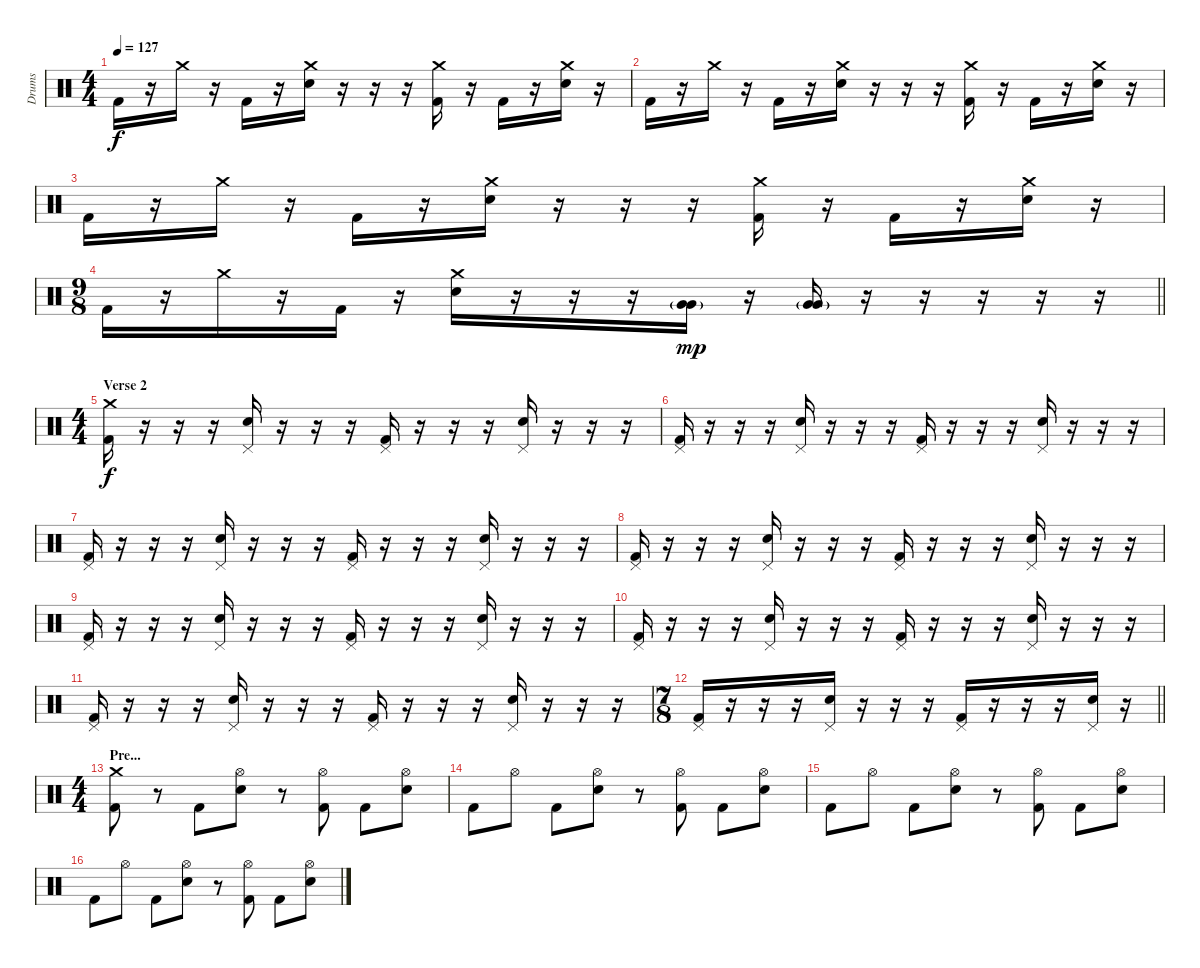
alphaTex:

\track ("Drums" "Drums") {instrument percussion}
\staff {score}
\articulation defaults
\ts (4 4)
\tempo 127
\clef neutral
\ks c "Kick (hit) 2".16{dy f}
r.16 "Crash medium (hit)".16 r.16 "Kick (hit) 2".16 r.16 ("Crash medium (hit)" "Electric Snare (hit)").16 r.16 r.16 r.16 ("Crash medium (hit)" "Kick (hit) 2").16 r.16 "Kick (hit) 2".16 r.16 ("Crash medium (hit)" "Electric Snare (hit)").16 r.16 |
"Kick (hit) 2".16 r.16 "Crash medium (hit)".16 r.16 "Kick (hit) 2".16 r.16 ("Crash medium (hit)" "Electric Snare (hit)").16 r.16 r.16 r.16 ("Crash medium (hit)" "Kick (hit) 2").16 r.16 "Kick (hit) 2".16 r.16 ("Crash medium (hit)" "Electric Snare (hit)").16 r.16 |
"Kick (hit) 2".16 r.16 "Crash medium (hit)".16 r.16 "Kick (hit) 2".16 r.16 ("Crash medium (hit)" "Electric Snare (hit)").16 r.16 r.16 r.16 ("Crash medium (hit)" "Kick (hit) 2").16 r.16 "Kick (hit) 2".16 r.16 ("Crash medium (hit)" "Electric Snare (hit)").16 r.16 |
\ts (9 8)
\barLineRight lightlight "Kick (hit) 2".16
r.16 "Crash medium (hit)".16 r.16 "Kick (hit) 2".16 r.16 ("Crash medium (hit)" "Electric Snare (hit)").16 r.16 r.16 r.16 ("Very Low Tom (hit)"{g} "Very Low Tom (hit)").16{dy mp} r.16 ("Very Low Tom (hit)"{g} "Very Low Tom (hit)").16 r.16 r.16 r.16 r.16 r.16 |
\ts (4 4)
\section ("" "Verse 2")
("Crash medium (hit)" "Kick (hit) 2").16{dy f} r.16 r.16 r.16 ("Pedal Hi-Hat (hit)" "Electric Snare (hit)").16 r.16 r.16 r.16 ("Pedal Hi-Hat (hit)" "Kick (hit) 2").16 r.16 r.16 r.16 ("Pedal Hi-Hat (hit)" "Electric Snare (hit)").16 r.16 r.16 r.16 |
("Pedal Hi-Hat (hit)" "Kick (hit) 2").16 r.16 r.16 r.16 ("Pedal Hi-Hat (hit)" "Electric Snare (hit)").16 r.16 r.16 r.16 ("Pedal Hi-Hat (hit)" "Kick (hit) 2").16 r.16 r.16 r.16 ("Pedal Hi-Hat (hit)" "Electric Snare (hit)").16 r.16 r.16 r.16 |
("Pedal Hi-Hat (hit)" "Kick (hit) 2").16 r.16 r.16 r.16 ("Pedal Hi-Hat (hit)" "Electric Snare (hit)").16 r.16 r.16 r.16 ("Pedal Hi-Hat (hit)" "Kick (hit) 2").16 r.16 r.16 r.16 ("Pedal Hi-Hat (hit)" "Electric Snare (hit)").16 r.16 r.16 r.16 |
("Pedal Hi-Hat (hit)" "Kick (hit) 2").16 r.16 r.16 r.16 ("Pedal Hi-Hat (hit)" "Electric Snare (hit)").16 r.16 r.16 r.16 ("Pedal Hi-Hat (hit)" "Kick (hit) 2").16 r.16 r.16 r.16 ("Pedal Hi-Hat (hit)" "Electric Snare (hit)").16 r.16 r.16 r.16 |
("Pedal Hi-Hat (hit)" "Kick (hit) 2").16 r.16 r.16 r.16 ("Pedal Hi-Hat (hit)" "Electric Snare (hit)").16 r.16 r.16 r.16 ("Pedal Hi-Hat (hit)" "Kick (hit) 2").16 r.16 r.16 r.16 ("Pedal Hi-Hat (hit)" "Electric Snare (hit)").16 r.16 r.16 r.16 |
("Pedal Hi-Hat (hit)" "Kick (hit) 2").16 r.16 r.16 r.16 ("Pedal Hi-Hat (hit)" "Electric Snare (hit)").16 r.16 r.16 r.16 ("Pedal Hi-Hat (hit)" "Kick (hit) 2").16 r.16 r.16 r.16 ("Pedal Hi-Hat (hit)" "Electric Snare (hit)").16 r.16 r.16 r.16 |
("Pedal Hi-Hat (hit)" "Kick (hit) 2").16 r.16 r.16 r.16 ("Pedal Hi-Hat (hit)" "Electric Snare (hit)").16 r.16 r.16 r.16 ("Pedal Hi-Hat (hit)" "Kick (hit) 2").16 r.16 r.16 r.16 ("Pedal Hi-Hat (hit)" "Electric Snare (hit)").16 r.16 r.16 r.16 |
\ts (7 8)
\barLineRight lightlight
("Pedal Hi-Hat (hit)" "Kick (hit) 2").16 r.16 r.16 r.16 ("Pedal Hi-Hat (hit)" "Electric Snare (hit)").16 r.16 r.16 r.16 ("Pedal Hi-Hat (hit)" "Kick (hit) 2").16 r.16 r.16 r.16 ("Pedal Hi-Hat (hit)" "Electric Snare (hit)").16 r.16 |
\ts (4 4)
\section ("" "Pre...")
("Crash medium (hit)" "Kick (hit) 2").8 r.8 "Kick (hit) 2".8 ("Hi-Hat (open)" "Electric Snare (hit)").8 r.8 ("Hi-Hat (open)" "Kick (hit) 2").8 "Kick (hit) 2".8 ("Hi-Hat (open)" "Electric Snare (hit)").8 |
"Kick (hit) 2".8 "Hi-Hat (open)".8 "Kick (hit) 2".8 ("Hi-Hat (open)" "Electric Snare (hit)").8 r.8 ("Hi-Hat (open)" "Kick (hit) 2").8 "Kick (hit) 2".8 ("Hi-Hat (open)" "Electric Snare (hit)").8 |
"Kick (hit) 2".8 "Hi-Hat (open)".8 "Kick (hit) 2".8 ("Hi-Hat (open)" "Electric Snare (hit)").8 r.8 ("Hi-Hat (open)" "Kick (hit) 2").8 "Kick (hit) 2".8 ("Hi-Hat (open)" "Electric Snare (hit)").8 |
"Kick (hit) 2".8 "Hi-Hat (open)".8 "Kick (hit) 2".8 ("Hi-Hat (open)" "Electric Snare (hit)").8 r.8 ("Hi-Hat (open)" "Kick (hit) 2").8 "Kick (hit) 2".8 ("Hi-Hat (open)" "Electric Snare (hit)").8
